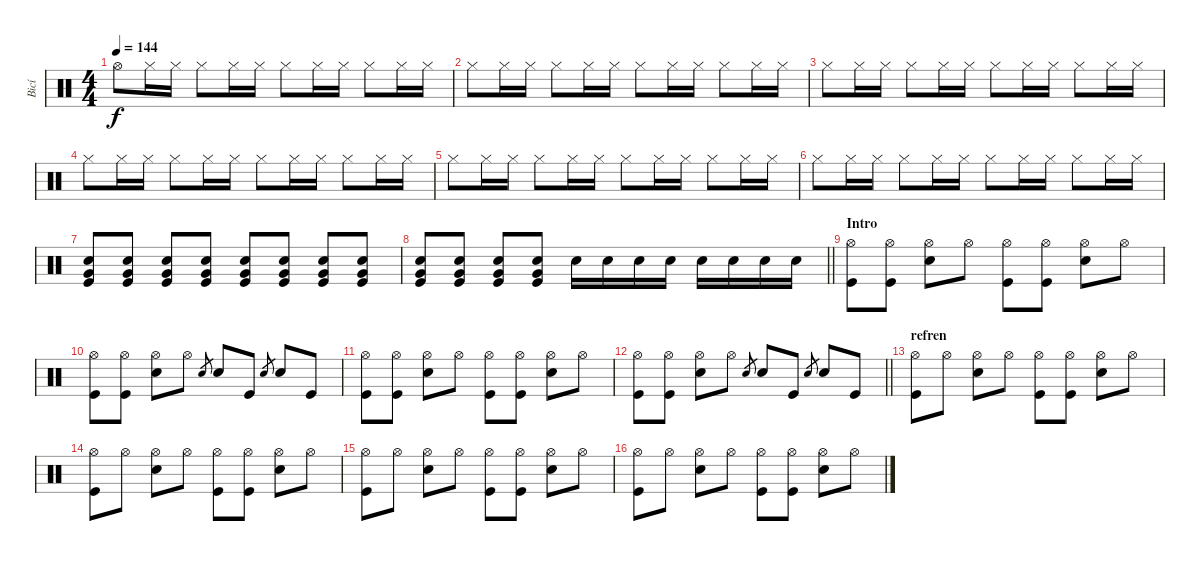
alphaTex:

\track ("Bicí" "Bicí") {instrument percussion}
\staff
\articulation defaults
\ts (4 4)
\tempo 144
\clef neutral
\ks c "Hi-Hat (open)".8{dy f} "Hi-Hat (closed)".16 "Hi-Hat (closed)".16 "Hi-Hat (closed)".8 "Hi-Hat (closed)".16 "Hi-Hat (closed)".16 "Hi-Hat (closed)".8 "Hi-Hat (closed)".16 "Hi-Hat (closed)".16 "Hi-Hat (closed)".8 "Hi-Hat (closed)".16 "Hi-Hat (closed)".16
|
"Hi-Hat (closed)".8 "Hi-Hat (closed)".16 "Hi-Hat (closed)".16 "Hi-Hat (closed)".8 "Hi-Hat (closed)".16 "Hi-Hat (closed)".16 "Hi-Hat (closed)".8 "Hi-Hat (closed)".16 "Hi-Hat (closed)".16 "Hi-Hat (closed)".8 "Hi-Hat (closed)".16 "Hi-Hat (closed)".16 |
"Hi-Hat (closed)".8 "Hi-Hat (closed)".16 "Hi-Hat (closed)".16 "Hi-Hat (closed)".8 "Hi-Hat (closed)".16 "Hi-Hat (closed)".16 "Hi-Hat (closed)".8 "Hi-Hat (closed)".16 "Hi-Hat (closed)".16 "Hi-Hat (closed)".8 "Hi-Hat (closed)".16 "Hi-Hat (closed)".16 |
"Hi-Hat (closed)".8 "Hi-Hat (closed)".16 "Hi-Hat (closed)".16 "Hi-Hat (closed)".8 "Hi-Hat (closed)".16 "Hi-Hat (closed)".16 "Hi-Hat (closed)".8 "Hi-Hat (closed)".16 "Hi-Hat (closed)".16 "Hi-Hat (closed)".8 "Hi-Hat (closed)".16 "Hi-Hat (closed)".16 |
"Hi-Hat (closed)".8 "Hi-Hat (closed)".16 "Hi-Hat (closed)".16 "Hi-Hat (closed)".8 "Hi-Hat (closed)".16 "Hi-Hat (closed)".16 "Hi-Hat (closed)".8 "Hi-Hat (closed)".16 "Hi-Hat (closed)".16 "Hi-Hat (closed)".8 "Hi-Hat (closed)".16 "Hi-Hat (closed)".16 |
"Hi-Hat (closed)".8 "Hi-Hat (closed)".16 "Hi-Hat (closed)".16 "Hi-Hat (closed)".8 "Hi-Hat (closed)".16 "Hi-Hat (closed)".16 "Hi-Hat (closed)".8 "Hi-Hat (closed)".16 "Hi-Hat (closed)".16 "Hi-Hat (closed)".8 "Hi-Hat (closed)".16 "Hi-Hat (closed)".16 |
("Very Low Tom (hit)" "Kick (hit)" "Electric Snare (hit)").8 ("Very Low Tom (hit)" "Kick (hit)" "Electric Snare (hit)").8 ("Very Low Tom (hit)" "Kick (hit)" "Electric Snare (hit)").8 ("Very Low Tom (hit)" "Kick (hit)" "Electric Snare (hit)").8 ("Very Low Tom (hit)" "Kick (hit)" "Electric Snare (hit)").8 ("Very Low Tom (hit)" "Kick (hit)" "Electric Snare (hit)").8 ("Very Low Tom (hit)" "Kick (hit)" "Electric Snare (hit)").8 ("Very Low Tom (hit)" "Kick (hit)" "Electric Snare (hit)").8 |
\barLineRight lightlight
("Very Low Tom (hit)" "Kick (hit)" "Electric Snare (hit)").8 ("Very Low Tom (hit)" "Kick (hit)" "Electric Snare (hit)").8 ("Very Low Tom (hit)" "Kick (hit)" "Electric Snare (hit)").8 ("Very Low Tom (hit)" "Kick (hit)" "Electric Snare (hit)").8 "Electric Snare (hit)".16 "Electric Snare (hit)".16 "Electric Snare (hit)".16 "Electric Snare (hit)".16 "Electric Snare (hit)".16 "Electric Snare (hit)".16 "Electric Snare (hit)".16 "Electric Snare (hit)".16 |
\section ("" "Intro")
("Hi-Hat (open)" "Kick (hit)").8 ("Hi-Hat (open)" "Kick (hit)").8 ("Hi-Hat (open)" "Electric Snare (hit)").8 "Hi-Hat (open)".8 ("Hi-Hat (open)" "Kick (hit)").8 ("Hi-Hat (open)" "Kick (hit)").8 ("Hi-Hat (open)" "Electric Snare (hit)").8 "Hi-Hat (open)".8 |
("Hi-Hat (open)" "Kick (hit)").8 ("Hi-Hat (open)" "Kick (hit)").8 ("Hi-Hat (open)" "Electric Snare (hit)").8 "Hi-Hat (open)".8 "Electric Snare (hit)".8{gr} "Electric Snare (hit)".8 "Kick (hit)".8 "Electric Snare (hit)".8{gr} "Electric Snare (hit)".8 "Kick (hit)".8 |
("Hi-Hat (open)" "Kick (hit)").8 ("Hi-Hat (open)" "Kick (hit)").8 ("Hi-Hat (open)" "Electric Snare (hit)").8 "Hi-Hat (open)".8 ("Hi-Hat (open)" "Kick (hit)").8 ("Hi-Hat (open)" "Kick (hit)").8 ("Hi-Hat (open)" "Electric Snare (hit)").8 "Hi-Hat (open)".8 |
\barLineRight lightlight
("Hi-Hat (open)" "Kick (hit)").8 ("Hi-Hat (open)" "Kick (hit)").8 ("Hi-Hat (open)" "Electric Snare (hit)").8 "Hi-Hat (open)".8 "Electric Snare (hit)".8{gr} "Electric Snare (hit)".8 "Kick (hit)".8 "Electric Snare (hit)".8{gr} "Electric Snare (hit)".8 "Kick (hit)".8 |
\section ("" "refren")
("Hi-Hat (open)" "Kick (hit)").8 "Hi-Hat (open)".8 ("Hi-Hat (open)" "Electric Snare (hit)").8 "Hi-Hat (open)".8 ("Hi-Hat (open)" "Kick (hit)").8 ("Hi-Hat (open)" "Kick (hit)").8 ("Hi-Hat (open)" "Electric Snare (hit)").8 "Hi-Hat (open)".8 |
("Hi-Hat (open)" "Kick (hit)").8 "Hi-Hat (open)".8 ("Hi-Hat (open)" "Electric Snare (hit)").8 "Hi-Hat (open)".8 ("Hi-Hat (open)" "Kick (hit)").8 ("Hi-Hat (open)" "Kick (hit)").8 ("Hi-Hat (open)" "Electric Snare (hit)").8 "Hi-Hat (open)".8 |
("Hi-Hat (open)" "Kick (hit)").8 "Hi-Hat (open)".8 ("Hi-Hat (open)" "Electric Snare (hit)").8 "Hi-Hat (open)".8 ("Hi-Hat (open)" "Kick (hit)").8 ("Hi-Hat (open)" "Kick (hit)").8 ("Hi-Hat (open)" "Electric Snare (hit)").8 "Hi-Hat (open)".8 |
("Hi-Hat (open)" "Kick (hit)").8 "Hi-Hat (open)".8 ("Hi-Hat (open)" "Electric Snare (hit)").8 "Hi-Hat (open)".8 ("Hi-Hat (open)" "Kick (hit)").8 ("Hi-Hat (open)" "Kick (hit)").8 ("Hi-Hat (open)" "Electric Snare (hit)").8 "Hi-Hat (open)".8
